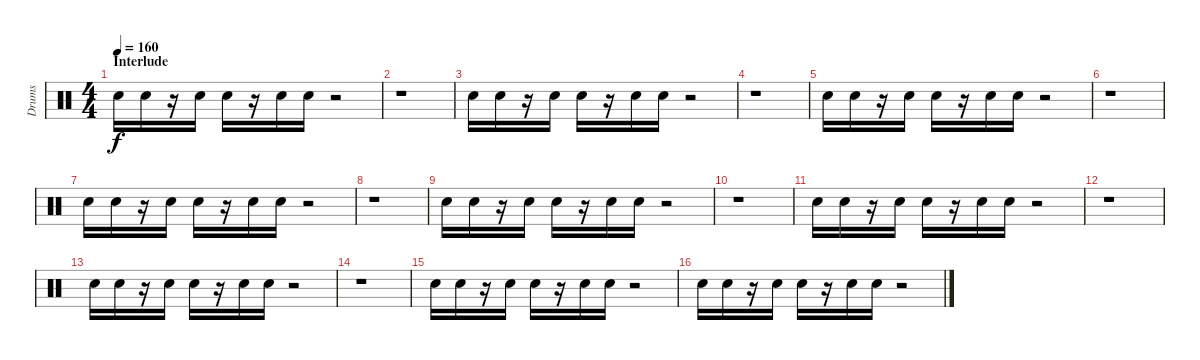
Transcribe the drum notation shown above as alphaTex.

\track ("Drums" "Drums") {instrument percussion}
\staff {score}
\articulation defaults
\ts (4 4)
\section ("" "Interlude")
\tempo 160
\clef neutral
\ks c "Electric Snare (hit)".16{dy f} "Electric Snare (hit)".16
r.16 "Electric Snare (hit)".16 "Electric Snare (hit)".16 r.16 "Electric Snare (hit)".16 "Electric Snare (hit)".16 r.2 |
r.1 |
"Electric Snare (hit)".16 "Electric Snare (hit)".16 r.16 "Electric Snare (hit)".16 "Electric Snare (hit)".16 r.16 "Electric Snare (hit)".16 "Electric Snare (hit)".16 r.2 |
r.1 |
"Electric Snare (hit)".16 "Electric Snare (hit)".16 r.16 "Electric Snare (hit)".16 "Electric Snare (hit)".16 r.16 "Electric Snare (hit)".16 "Electric Snare (hit)".16 r.2 |
r.1 |
"Electric Snare (hit)".16 "Electric Snare (hit)".16 r.16 "Electric Snare (hit)".16 "Electric Snare (hit)".16 r.16 "Electric Snare (hit)".16 "Electric Snare (hit)".16 r.2 |
r.1 |
"Electric Snare (hit)".16 "Electric Snare (hit)".16 r.16 "Electric Snare (hit)".16 "Electric Snare (hit)".16 r.16 "Electric Snare (hit)".16 "Electric Snare (hit)".16 r.2 |
r.1 |
"Electric Snare (hit)".16 "Electric Snare (hit)".16 r.16 "Electric Snare (hit)".16 "Electric Snare (hit)".16 r.16 "Electric Snare (hit)".16 "Electric Snare (hit)".16 r.2 |
r.1 |
"Electric Snare (hit)".16 "Electric Snare (hit)".16 r.16 "Electric Snare (hit)".16 "Electric Snare (hit)".16 r.16 "Electric Snare (hit)".16 "Electric Snare (hit)".16 r.2 |
r.1 |
"Electric Snare (hit)".16 "Electric Snare (hit)".16 r.16 "Electric Snare (hit)".16 "Electric Snare (hit)".16 r.16 "Electric Snare (hit)".16 "Electric Snare (hit)".16 r.2 |
"Electric Snare (hit)".16 "Electric Snare (hit)".16 r.16 "Electric Snare (hit)".16 "Electric Snare (hit)".16 r.16 "Electric Snare (hit)".16 "Electric Snare (hit)".16 r.2
